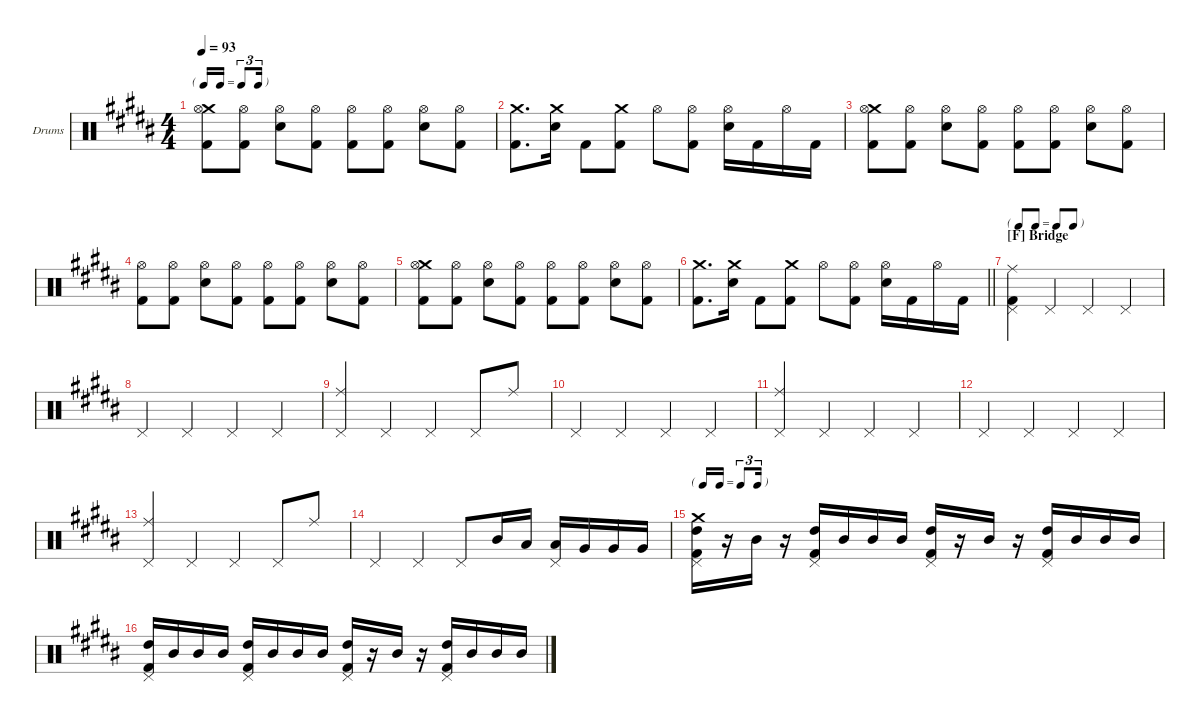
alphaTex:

\hideDynamics
\bracketExtendMode groupsimilarinstruments
\firstSystemTrackNameOrientation horizontal
\otherSystemsTrackNameOrientation horizontal
\track ("Drumkit" "Drums") {multiBarRest instrument percussion}
\staff {score}
\articulation defaults
\ts (4 4)
\tf triplet16th
\tempo 93
\clef neutral
\ks b
("Crash medium (hit)"{acc forcenatural} "Hi-Hat (open)"{acc forcenatural} "Kick (hit) 2"{acc forcenatural}).8{dy f} ("Hi-Hat (open)"{acc forcenatural} "Kick (hit) 2"{acc forcenatural}).8 ("Hi-Hat (open)"{acc forcenatural} "Snare (hit) 2"{acc forcenatural}).8 ("Hi-Hat (open)"{acc forcenatural} "Kick (hit) 2"{acc forcenatural}).8 ("Hi-Hat (open)"{acc forcenatural} "Kick (hit) 2"{acc forcenatural}).8 ("Hi-Hat (open)"{acc forcenatural} "Kick (hit) 2"{acc forcenatural}).8 ("Hi-Hat (open)"{acc forcenatural} "Snare (hit) 2"{acc forcenatural}).8 ("Hi-Hat (open)"{acc forcenatural} "Kick (hit) 2"{acc forcenatural}).8 |
("Crash medium (hit)"{acc forcenatural} "Kick (hit) 2"{acc forcenatural}).8{d} ("Crash medium (hit)"{acc forcenatural} "Snare (hit) 2"{acc forcenatural}).16 "Kick (hit) 2"{acc forcenatural}.8 ("Crash medium (hit)"{acc forcenatural} "Kick (hit) 2"{acc forcenatural}).8 "Hi-Hat (open)"{acc forcenatural}.8 ("Hi-Hat (open)"{acc forcenatural} "Kick (hit) 2"{acc forcenatural}).8 ("Hi-Hat (open)"{acc forcenatural} "Snare (hit) 2"{acc forcenatural}).16 "Kick (hit) 2"{acc forcenatural}.16 "Hi-Hat (open)"{acc forcenatural}.16 "Kick (hit) 2"{acc forcenatural}.16 |
("Crash medium (hit)"{acc forcenatural} "Hi-Hat (open)"{acc forcenatural} "Kick (hit) 2"{acc forcenatural}).8 ("Hi-Hat (open)"{acc forcenatural} "Kick (hit) 2"{acc forcenatural}).8 ("Hi-Hat (open)"{acc forcenatural} "Snare (hit) 2"{acc forcenatural}).8 ("Hi-Hat (open)"{acc forcenatural} "Kick (hit) 2"{acc forcenatural}).8 ("Hi-Hat (open)"{acc forcenatural} "Kick (hit) 2"{acc forcenatural}).8 ("Hi-Hat (open)"{acc forcenatural} "Kick (hit) 2"{acc forcenatural}).8 ("Hi-Hat (open)"{acc forcenatural} "Snare (hit) 2"{acc forcenatural}).8 ("Hi-Hat (open)"{acc forcenatural} "Kick (hit) 2"{acc forcenatural}).8 |
("Hi-Hat (open)"{acc forcenatural} "Kick (hit) 2"{acc forcenatural}).8 ("Hi-Hat (open)"{acc forcenatural} "Kick (hit) 2"{acc forcenatural}).8 ("Hi-Hat (open)"{acc forcenatural} "Snare (hit) 2"{acc forcenatural}).8 ("Hi-Hat (open)"{acc forcenatural} "Kick (hit) 2"{acc forcenatural}).8 ("Hi-Hat (open)"{acc forcenatural} "Kick (hit) 2"{acc forcenatural}).8 ("Hi-Hat (open)"{acc forcenatural} "Kick (hit) 2"{acc forcenatural}).8 ("Hi-Hat (open)"{acc forcenatural} "Snare (hit) 2"{acc forcenatural}).8 ("Hi-Hat (open)"{acc forcenatural} "Kick (hit) 2"{acc forcenatural}).8 |
("Crash medium (hit)"{acc forcenatural} "Hi-Hat (open)"{acc forcenatural} "Kick (hit) 2"{acc forcenatural}).8 ("Hi-Hat (open)"{acc forcenatural} "Kick (hit) 2"{acc forcenatural}).8 ("Hi-Hat (open)"{acc forcenatural} "Snare (hit) 2"{acc forcenatural}).8 ("Hi-Hat (open)"{acc forcenatural} "Kick (hit) 2"{acc forcenatural}).8 ("Hi-Hat (open)"{acc forcenatural} "Kick (hit) 2"{acc forcenatural}).8 ("Hi-Hat (open)"{acc forcenatural} "Kick (hit) 2"{acc forcenatural}).8 ("Hi-Hat (open)"{acc forcenatural} "Snare (hit) 2"{acc forcenatural}).8 ("Hi-Hat (open)"{acc forcenatural} "Kick (hit) 2"{acc forcenatural}).8 |
\barLineRight lightlight
("Crash medium (hit)"{acc forcenatural} "Kick (hit) 2"{acc forcenatural}).8{d} ("Crash medium (hit)"{acc forcenatural} "Snare (hit) 2"{acc forcenatural}).16 "Kick (hit) 2"{acc forcenatural}.8 ("Crash medium (hit)"{acc forcenatural} "Kick (hit) 2"{acc forcenatural}).8 "Hi-Hat (open)"{acc forcenatural}.8 ("Hi-Hat (open)"{acc forcenatural} "Kick (hit) 2"{acc forcenatural}).8 ("Hi-Hat (open)"{acc forcenatural} "Snare (hit) 2"{acc forcenatural}).16 "Kick (hit) 2"{acc forcenatural}.16 "Hi-Hat (open)"{acc forcenatural}.16 "Kick (hit) 2"{acc forcenatural}.16 |
\tf none
\section ("F" "Bridge")
("Pedal Hi-Hat (hit)"{acc forcenatural} "Ride (middle)"{acc forcenatural} "Kick (hit) 2"{acc forcenatural}).4{dy mp} "Pedal Hi-Hat (hit)"{acc forcenatural}.4 "Pedal Hi-Hat (hit)"{acc forcenatural}.4 "Pedal Hi-Hat (hit)"{acc forcenatural}.4 |
"Pedal Hi-Hat (hit)"{acc forcenatural}.4 "Pedal Hi-Hat (hit)"{acc forcenatural}.4 "Pedal Hi-Hat (hit)"{acc forcenatural}.4 "Pedal Hi-Hat (hit)"{acc forcenatural}.4 |
("Pedal Hi-Hat (hit)"{acc forcenatural} "Ride (middle)"{acc forcenatural}).4 "Pedal Hi-Hat (hit)"{acc forcenatural}.4 "Pedal Hi-Hat (hit)"{acc forcenatural}.4 "Pedal Hi-Hat (hit)"{acc forcenatural}.8 "Ride (middle)"{acc forcenatural}.8 |
"Pedal Hi-Hat (hit)"{acc forcenatural}.4 "Pedal Hi-Hat (hit)"{acc forcenatural}.4 "Pedal Hi-Hat (hit)"{acc forcenatural}.4 "Pedal Hi-Hat (hit)"{acc forcenatural}.4 |
("Pedal Hi-Hat (hit)"{acc forcenatural} "Ride (middle)"{acc forcenatural}).4 "Pedal Hi-Hat (hit)"{acc forcenatural}.4 "Pedal Hi-Hat (hit)"{acc forcenatural}.4 "Pedal Hi-Hat (hit)"{acc forcenatural}.4 |
"Pedal Hi-Hat (hit)"{acc forcenatural}.4 "Pedal Hi-Hat (hit)"{acc forcenatural}.4 "Pedal Hi-Hat (hit)"{acc forcenatural}.4 "Pedal Hi-Hat (hit)"{acc forcenatural}.4 |
("Pedal Hi-Hat (hit)"{acc forcenatural} "Ride (middle)"{acc forcenatural}).4 "Pedal Hi-Hat (hit)"{acc forcenatural}.4 "Pedal Hi-Hat (hit)"{acc forcenatural}.4 "Pedal Hi-Hat (hit)"{acc forcenatural}.8 "Ride (middle)"{acc forcenatural}.8 |
"Pedal Hi-Hat (hit)"{acc forcenatural}.4 "Pedal Hi-Hat (hit)"{acc forcenatural}.4 "Pedal Hi-Hat (hit)"{acc forcenatural}.8{dy f} "Mid Tom (hit)"{acc forcenatural}.16{dy p} "Low Tom (hit)"{acc forcenatural}.16{dy mp} ("Pedal Hi-Hat (hit)"{acc forcenatural} "Low Tom (hit)"{acc forcenatural}).16{dy mf} "Very Low Tom (hit)"{acc forcenatural}.16 "Very Low Tom (hit)"{acc forcenatural}.16 "Very Low Tom (hit)"{acc forcenatural}.16{dy f} |
\tf triplet16th
("Pedal Hi-Hat (hit)"{acc forcenatural} "Crash medium (hit)"{acc forcenatural} "High Tom (hit)"{acc forcenatural} "Kick (hit) 2"{acc forcenatural}).16 r.16 "Mid Tom (hit)"{acc forcenatural}.16{dy mf} r.16 ("Pedal Hi-Hat (hit)"{acc forcenatural} "High Tom (hit)"{acc forcenatural} "Kick (hit) 2"{acc forcenatural}).16{dy f} "Mid Tom (hit)"{acc forcenatural}.16{dy mp} "Mid Tom (hit)"{acc forcenatural}.16{dy mf} "Mid Tom (hit)"{acc forcenatural}.16{dy mp} ("Pedal Hi-Hat (hit)"{acc forcenatural} "High Tom (hit)"{acc forcenatural} "Kick (hit) 2"{acc forcenatural}).16{dy f} r.16 "Mid Tom (hit)"{acc forcenatural}.16{dy mf} r.16 ("Pedal Hi-Hat (hit)"{acc forcenatural} "High Tom (hit)"{acc forcenatural} "Kick (hit) 2"{acc forcenatural}).16{dy f} "Mid Tom (hit)"{acc forcenatural}.16{dy mp} "Mid Tom (hit)"{acc forcenatural}.16{dy mf} "Mid Tom (hit)"{acc forcenatural}.16{dy mp} |
("Pedal Hi-Hat (hit)"{acc forcenatural} "High Tom (hit)"{acc forcenatural} "Kick (hit) 2"{acc forcenatural}).16{dy f} "Mid Tom (hit)"{acc forcenatural}.16{dy mp} "Mid Tom (hit)"{acc forcenatural}.16{dy mf} "Mid Tom (hit)"{acc forcenatural}.16{dy mp} ("Pedal Hi-Hat (hit)"{acc forcenatural} "High Tom (hit)"{acc forcenatural} "Kick (hit) 2"{acc forcenatural}).16{dy f} "Mid Tom (hit)"{acc forcenatural}.16{dy mp} "Mid Tom (hit)"{acc forcenatural}.16{dy mf} "Mid Tom (hit)"{acc forcenatural}.16{dy mp} ("Pedal Hi-Hat (hit)"{acc forcenatural} "High Tom (hit)"{acc forcenatural} "Kick (hit) 2"{acc forcenatural}).16{dy f} r.16 "Mid Tom (hit)"{acc forcenatural}.16{dy mf} r.16 ("Pedal Hi-Hat (hit)"{acc forcenatural} "High Tom (hit)"{acc forcenatural} "Kick (hit) 2"{acc forcenatural}).16{dy f} "Mid Tom (hit)"{acc forcenatural}.16{dy mp} "Mid Tom (hit)"{acc forcenatural}.16{dy mf} "Mid Tom (hit)"{acc forcenatural}.16{dy mp}
